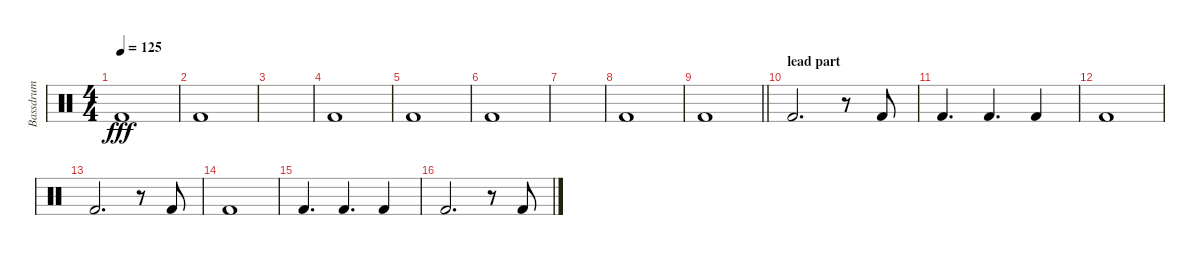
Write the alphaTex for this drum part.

\track ("Bassdrum" "Bassdrum") {instrument percussion}
\staff {score}
\articulation defaults
\ts (4 4)
\tempo 125
\clef neutral
\ks c "Kick (hit) 2".1{dy fff}
|
"Kick (hit) 2".1 |
|
"Kick (hit) 2".1 |
"Kick (hit) 2".1 |
"Kick (hit) 2".1 |
|
"Kick (hit) 2".1 |
\barLineRight lightlight "Kick (hit) 2".1
|
\section ("" "lead part")
"Kick (hit) 2".2{d} r.8 "Kick (hit) 2".8 |
"Kick (hit) 2".4{d} "Kick (hit) 2".4{d} "Kick (hit) 2".4 |
"Kick (hit) 2".1 |
"Kick (hit) 2".2{d} r.8 "Kick (hit) 2".8 |
"Kick (hit) 2".1 |
"Kick (hit) 2".4{d} "Kick (hit) 2".4{d} "Kick (hit) 2".4 |
"Kick (hit) 2".2{d} r.8 "Kick (hit) 2".8
